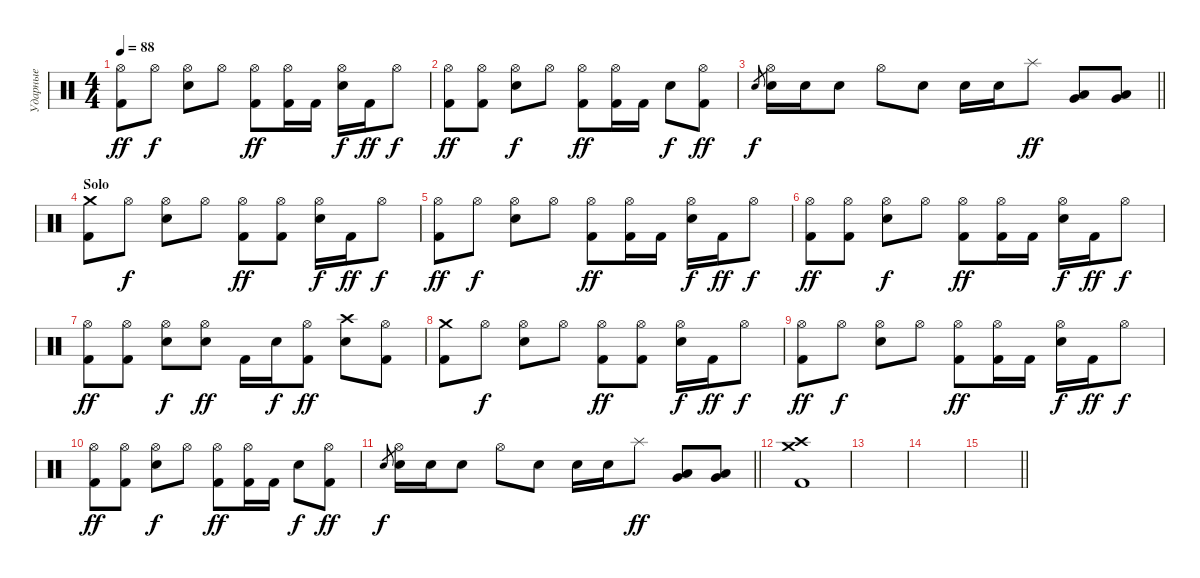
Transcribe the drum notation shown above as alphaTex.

\track ("Ударные" "Ударные") {instrument percussion}
\staff {score}
\articulation defaults
\ts (4 4)
\tempo 88
\clef neutral
\ks c
("Kick (hit) 2" "Hi-Hat (open)").8{dy ff} "Hi-Hat (open)".8{dy f} ("Electric Snare (hit)" "Hi-Hat (open)").8 "Hi-Hat (open)".8 ("Kick (hit) 2" "Hi-Hat (open)").8{dy ff} ("Kick (hit) 2" "Hi-Hat (open)").16 "Kick (hit) 2".16 ("Electric Snare (hit)" "Hi-Hat (open)").16{dy f} "Kick (hit) 2".16{dy ff} "Hi-Hat (open)".8{dy f} |
("Kick (hit) 2" "Hi-Hat (open)").8{dy ff} ("Kick (hit) 2" "Hi-Hat (open)").8 ("Electric Snare (hit)" "Hi-Hat (open)").8{dy f} "Hi-Hat (open)".8 ("Kick (hit) 2" "Hi-Hat (open)").8{dy ff} ("Kick (hit) 2" "Hi-Hat (open)").16 "Kick (hit) 2".16 "Electric Snare (hit)".8{dy f} ("Kick (hit) 2" "Hi-Hat (open)").8{dy ff} |
\barLineRight lightlight "Electric Snare (hit)".8{gr dy f}
("Electric Snare (hit)" "Hi-Hat (open)").16 "Electric Snare (hit)".16 "Electric Snare (hit)".8 "Hi-Hat (open)".8 "Electric Snare (hit)".8 "Electric Snare (hit)".16 "Electric Snare (hit)".16 "Splash (hit)".8{dy ff} ("Very Low Tom (hit)" "Low Tom (hit)").8 ("Very Low Tom (hit)" "Low Tom (hit)").8 |
\section ("" "Solo")
("Kick (hit) 2" "Crash medium (hit)").8 "Hi-Hat (open)".8{dy f} ("Electric Snare (hit)" "Hi-Hat (open)").8 "Hi-Hat (open)".8 ("Kick (hit) 2" "Hi-Hat (open)").8{dy ff} ("Kick (hit) 2" "Hi-Hat (open)").8 ("Electric Snare (hit)" "Hi-Hat (open)").16{dy f} "Kick (hit) 2".16{dy ff} "Hi-Hat (open)".8{dy f} |
("Kick (hit) 2" "Hi-Hat (open)").8{dy ff} "Hi-Hat (open)".8{dy f} ("Electric Snare (hit)" "Hi-Hat (open)").8 "Hi-Hat (open)".8 ("Kick (hit) 2" "Hi-Hat (open)").8{dy ff} ("Kick (hit) 2" "Hi-Hat (open)").16 "Kick (hit) 2".16 ("Electric Snare (hit)" "Hi-Hat (open)").16{dy f} "Kick (hit) 2".16{dy ff} "Hi-Hat (open)".8{dy f} |
("Kick (hit) 2" "Hi-Hat (open)").8{dy ff} ("Kick (hit) 2" "Hi-Hat (open)").8 ("Electric Snare (hit)" "Hi-Hat (open)").8{dy f} "Hi-Hat (open)".8 ("Kick (hit) 2" "Hi-Hat (open)").8{dy ff} ("Kick (hit) 2" "Hi-Hat (open)").16 "Kick (hit) 2".16 ("Electric Snare (hit)" "Hi-Hat (open)").16{dy f} "Kick (hit) 2".16{dy ff} "Hi-Hat (open)".8{dy f} |
("Kick (hit) 2" "Hi-Hat (open)").8{dy ff} ("Kick (hit) 2" "Hi-Hat (open)").8 ("Electric Snare (hit)" "Hi-Hat (open)").8{dy f} ("Electric Snare (hit)" "Hi-Hat (open)").8{dy ff} "Kick (hit) 2".16 "Electric Snare (hit)".16{dy f} ("Kick (hit) 2" "Hi-Hat (open)").8{dy ff} ("Electric Snare (hit)" "Crash high (hit)").8 ("Kick (hit) 2" "Hi-Hat (open)").8 |
("Kick (hit) 2" "Crash medium (hit)").8 "Hi-Hat (open)".8{dy f} ("Electric Snare (hit)" "Hi-Hat (open)").8 "Hi-Hat (open)".8 ("Kick (hit) 2" "Hi-Hat (open)").8{dy ff} ("Kick (hit) 2" "Hi-Hat (open)").8 ("Electric Snare (hit)" "Hi-Hat (open)").16{dy f} "Kick (hit) 2".16{dy ff} "Hi-Hat (open)".8{dy f} |
("Kick (hit) 2" "Hi-Hat (open)").8{dy ff} "Hi-Hat (open)".8{dy f} ("Electric Snare (hit)" "Hi-Hat (open)").8 "Hi-Hat (open)".8 ("Kick (hit) 2" "Hi-Hat (open)").8{dy ff} ("Kick (hit) 2" "Hi-Hat (open)").16 "Kick (hit) 2".16 ("Electric Snare (hit)" "Hi-Hat (open)").16{dy f} "Kick (hit) 2".16{dy ff} "Hi-Hat (open)".8{dy f} |
("Kick (hit) 2" "Hi-Hat (open)").8{dy ff} ("Kick (hit) 2" "Hi-Hat (open)").8 ("Electric Snare (hit)" "Hi-Hat (open)").8{dy f} "Hi-Hat (open)".8 ("Kick (hit) 2" "Hi-Hat (open)").8{dy ff} ("Kick (hit) 2" "Hi-Hat (open)").16 "Kick (hit) 2".16 "Electric Snare (hit)".8{dy f} ("Kick (hit) 2" "Hi-Hat (open)").8{dy ff} |
\barLineRight lightlight "Electric Snare (hit)".8{gr dy f}
("Electric Snare (hit)" "Hi-Hat (open)").16 "Electric Snare (hit)".16 "Electric Snare (hit)".8 "Hi-Hat (open)".8 "Electric Snare (hit)".8 "Electric Snare (hit)".16 "Electric Snare (hit)".16 "Splash (hit)".8{dy ff} ("Very Low Tom (hit)" "Low Tom (hit)").8 ("Very Low Tom (hit)" "Low Tom (hit)").8 |
("Kick (hit) 2" "Crash medium (hit)" "Crash high (hit)").1 |
|
|
\barLineRight lightlight
